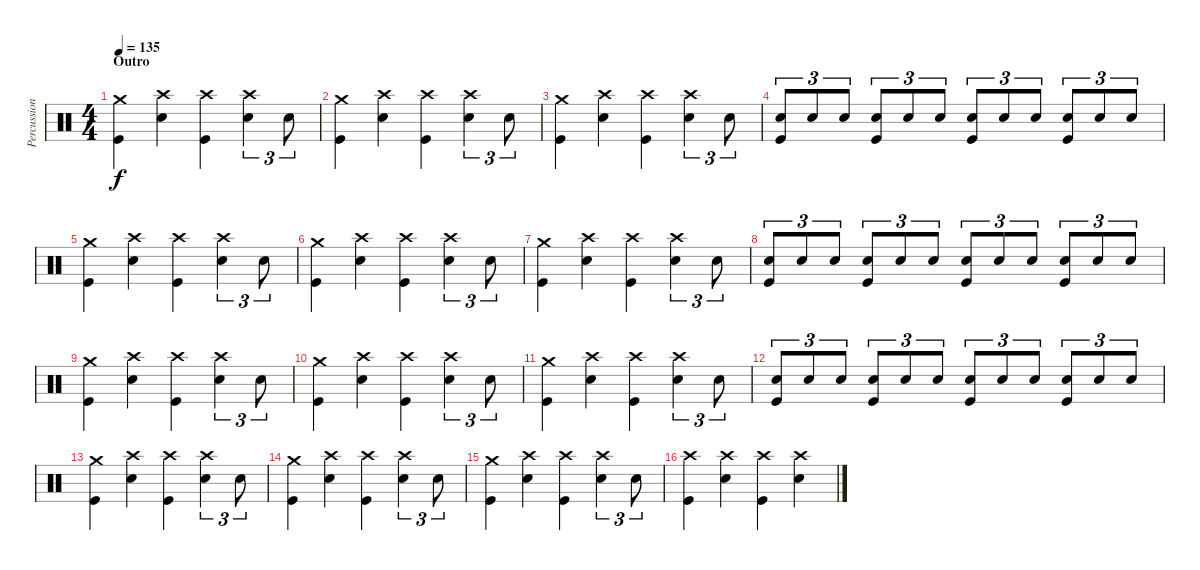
\track ("Percussion" "Percussion") {instrument percussion}
\staff {score}
\articulation defaults
\ts (4 4)
\section ("" "Outro")
\tempo 135
\clef neutral
\ks c
("Crash medium (hit)" "Kick (hit)").4{dy f} ("Crash high (hit)" "Electric Snare (hit)").4 ("Crash high (hit)" "Kick (hit)").4 ("Crash high (hit)" "Electric Snare (hit)").4{tu (3 2)} "Electric Snare (hit)".8{tu (3 2)} |
("Crash medium (hit)" "Kick (hit)").4 ("Crash high (hit)" "Electric Snare (hit)").4 ("Crash high (hit)" "Kick (hit)").4 ("Crash high (hit)" "Electric Snare (hit)").4{tu (3 2)} "Electric Snare (hit)".8{tu (3 2)} |
("Crash medium (hit)" "Kick (hit)").4 ("Crash high (hit)" "Electric Snare (hit)").4 ("Crash high (hit)" "Kick (hit)").4 ("Crash high (hit)" "Electric Snare (hit)").4{tu (3 2)} "Electric Snare (hit)".8{tu (3 2)} |
("Snare (hit) 2" "Kick (hit)").8{tu (3 2)} "Snare (hit) 2".8{tu (3 2)} "Snare (hit) 2".8{tu (3 2)} ("Snare (hit) 2" "Kick (hit)").8{tu (3 2)} "Snare (hit) 2".8{tu (3 2)} "Snare (hit) 2".8{tu (3 2)} ("Snare (hit) 2" "Kick (hit)").8{tu (3 2)} "Snare (hit) 2".8{tu (3 2)} "Snare (hit) 2".8{tu (3 2)} ("Snare (hit) 2" "Kick (hit)").8{tu (3 2)} "Snare (hit) 2".8{tu (3 2)} "Snare (hit) 2".8{tu (3 2)} |
("Crash medium (hit)" "Kick (hit)").4 ("Crash high (hit)" "Electric Snare (hit)").4 ("Crash high (hit)" "Kick (hit)").4 ("Crash high (hit)" "Electric Snare (hit)").4{tu (3 2)} "Electric Snare (hit)".8{tu (3 2)} |
("Crash medium (hit)" "Kick (hit)").4 ("Crash high (hit)" "Electric Snare (hit)").4 ("Crash high (hit)" "Kick (hit)").4 ("Crash high (hit)" "Electric Snare (hit)").4{tu (3 2)} "Electric Snare (hit)".8{tu (3 2)} |
("Crash medium (hit)" "Kick (hit)").4 ("Crash high (hit)" "Electric Snare (hit)").4 ("Crash high (hit)" "Kick (hit)").4 ("Crash high (hit)" "Electric Snare (hit)").4{tu (3 2)} "Electric Snare (hit)".8{tu (3 2)} |
("Snare (hit) 2" "Kick (hit)").8{tu (3 2)} "Snare (hit) 2".8{tu (3 2)} "Snare (hit) 2".8{tu (3 2)} ("Snare (hit) 2" "Kick (hit)").8{tu (3 2)} "Snare (hit) 2".8{tu (3 2)} "Snare (hit) 2".8{tu (3 2)} ("Snare (hit) 2" "Kick (hit)").8{tu (3 2)} "Snare (hit) 2".8{tu (3 2)} "Snare (hit) 2".8{tu (3 2)} ("Snare (hit) 2" "Kick (hit)").8{tu (3 2)} "Snare (hit) 2".8{tu (3 2)} "Snare (hit) 2".8{tu (3 2)} |
("Crash medium (hit)" "Kick (hit)").4 ("Crash high (hit)" "Electric Snare (hit)").4 ("Crash high (hit)" "Kick (hit)").4 ("Crash high (hit)" "Electric Snare (hit)").4{tu (3 2)} "Electric Snare (hit)".8{tu (3 2)} |
("Crash medium (hit)" "Kick (hit)").4 ("Crash high (hit)" "Electric Snare (hit)").4 ("Crash high (hit)" "Kick (hit)").4 ("Crash high (hit)" "Electric Snare (hit)").4{tu (3 2)} "Electric Snare (hit)".8{tu (3 2)} |
("Crash medium (hit)" "Kick (hit)").4 ("Crash high (hit)" "Electric Snare (hit)").4 ("Crash high (hit)" "Kick (hit)").4 ("Crash high (hit)" "Electric Snare (hit)").4{tu (3 2)} "Electric Snare (hit)".8{tu (3 2)} |
("Snare (hit) 2" "Kick (hit)").8{tu (3 2)} "Snare (hit) 2".8{tu (3 2)} "Snare (hit) 2".8{tu (3 2)} ("Snare (hit) 2" "Kick (hit)").8{tu (3 2)} "Snare (hit) 2".8{tu (3 2)} "Snare (hit) 2".8{tu (3 2)} ("Snare (hit) 2" "Kick (hit)").8{tu (3 2)} "Snare (hit) 2".8{tu (3 2)} "Snare (hit) 2".8{tu (3 2)} ("Snare (hit) 2" "Kick (hit)").8{tu (3 2)} "Snare (hit) 2".8{tu (3 2)} "Snare (hit) 2".8{tu (3 2)} |
("Crash medium (hit)" "Kick (hit)").4 ("Crash high (hit)" "Electric Snare (hit)").4 ("Crash high (hit)" "Kick (hit)").4 ("Crash high (hit)" "Electric Snare (hit)").4{tu (3 2)} "Electric Snare (hit)".8{tu (3 2)} |
("Crash medium (hit)" "Kick (hit)").4 ("Crash high (hit)" "Electric Snare (hit)").4 ("Crash high (hit)" "Kick (hit)").4 ("Crash high (hit)" "Electric Snare (hit)").4{tu (3 2)} "Electric Snare (hit)".8{tu (3 2)} |
("Crash medium (hit)" "Kick (hit)").4 ("Crash high (hit)" "Electric Snare (hit)").4 ("Crash high (hit)" "Kick (hit)").4 ("Crash high (hit)" "Electric Snare (hit)").4{tu (3 2)} "Electric Snare (hit)".8{tu (3 2)} |
("Crash high (hit)" "Kick (hit)").4 ("Crash high (hit)" "Electric Snare (hit)").4 ("Crash high (hit)" "Kick (hit)").4 ("Crash high (hit)" "Electric Snare (hit)").4
